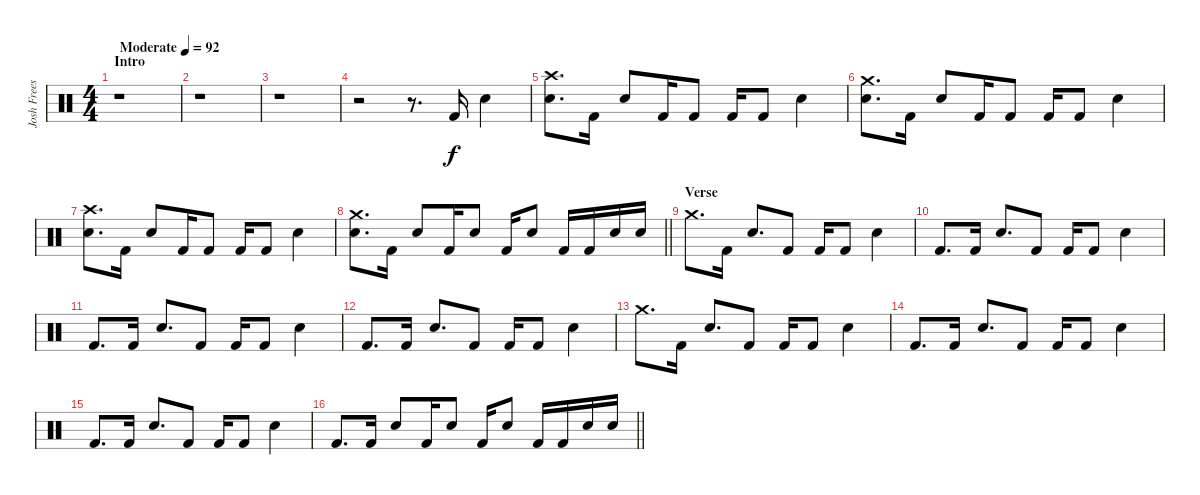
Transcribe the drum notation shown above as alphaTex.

\track ("Josh Freese (Studio Drummer)" "Josh Frees") {instrument percussion}
\staff {score}
\articulation defaults
\ts (4 4)
\section ("" "Intro")
\tempo (92 "Moderate")
\clef neutral
\ks c
r.1{dy f} |
r.1 |
r.1 |
r.2 r.8{d} "Kick (hit) 2".16 "Electric Snare (hit)".4 |
("Crash high (hit)" "Electric Snare (hit)").8{d} "Kick (hit) 2".16 "Electric Snare (hit)".8 "Kick (hit) 2".16 "Kick (hit) 2".8 "Kick (hit) 2".16 "Kick (hit) 2".8 "Electric Snare (hit)".4 |
("Crash medium (hit)" "Electric Snare (hit)").8{d} "Kick (hit) 2".16 "Electric Snare (hit)".8 "Kick (hit) 2".16 "Kick (hit) 2".8 "Kick (hit) 2".16 "Kick (hit) 2".8 "Electric Snare (hit)".4 |
("Crash high (hit)" "Electric Snare (hit)").8{d} "Kick (hit) 2".16 "Electric Snare (hit)".8 "Kick (hit) 2".16 "Kick (hit) 2".8 "Kick (hit) 2".16 "Kick (hit) 2".8 "Electric Snare (hit)".4 |
\barLineRight lightlight
("Crash medium (hit)" "Electric Snare (hit)").8{d} "Kick (hit) 2".16 "Electric Snare (hit)".8 "Kick (hit) 2".16 "Electric Snare (hit)".8 "Kick (hit) 2".16 "Electric Snare (hit)".8 "Kick (hit) 2".16 "Kick (hit) 2".16 "Electric Snare (hit)".16 "Electric Snare (hit)".16 |
\section ("" "Verse")
"Crash medium (hit)".8{d} "Kick (hit) 2".16 "Electric Snare (hit)".8{d} "Kick (hit) 2".8 "Kick (hit) 2".16 "Kick (hit) 2".8 "Electric Snare (hit)".4 |
"Kick (hit) 2".8{d} "Kick (hit) 2".16 "Electric Snare (hit)".8{d} "Kick (hit) 2".8 "Kick (hit) 2".16 "Kick (hit) 2".8 "Electric Snare (hit)".4 |
"Kick (hit) 2".8{d} "Kick (hit) 2".16 "Electric Snare (hit)".8{d} "Kick (hit) 2".8 "Kick (hit) 2".16 "Kick (hit) 2".8 "Electric Snare (hit)".4 |
"Kick (hit) 2".8{d} "Kick (hit) 2".16 "Electric Snare (hit)".8{d} "Kick (hit) 2".8 "Kick (hit) 2".16 "Kick (hit) 2".8 "Electric Snare (hit)".4 |
"Crash medium (hit)".8{d} "Kick (hit) 2".16 "Electric Snare (hit)".8{d} "Kick (hit) 2".8 "Kick (hit) 2".16 "Kick (hit) 2".8 "Electric Snare (hit)".4 |
"Kick (hit) 2".8{d} "Kick (hit) 2".16 "Electric Snare (hit)".8{d} "Kick (hit) 2".8 "Kick (hit) 2".16 "Kick (hit) 2".8 "Electric Snare (hit)".4 |
"Kick (hit) 2".8{d} "Kick (hit) 2".16 "Electric Snare (hit)".8{d} "Kick (hit) 2".8 "Kick (hit) 2".16 "Kick (hit) 2".8 "Electric Snare (hit)".4 |
\barLineRight lightlight "Kick (hit) 2".8{d} "Kick (hit) 2".16 "Electric Snare (hit)".8 "Kick (hit) 2".16 "Electric Snare (hit)".8 "Kick (hit) 2".16 "Electric Snare (hit)".8 "Kick (hit) 2".16 "Kick (hit) 2".16 "Electric Snare (hit)".16 "Electric Snare (hit)".16
